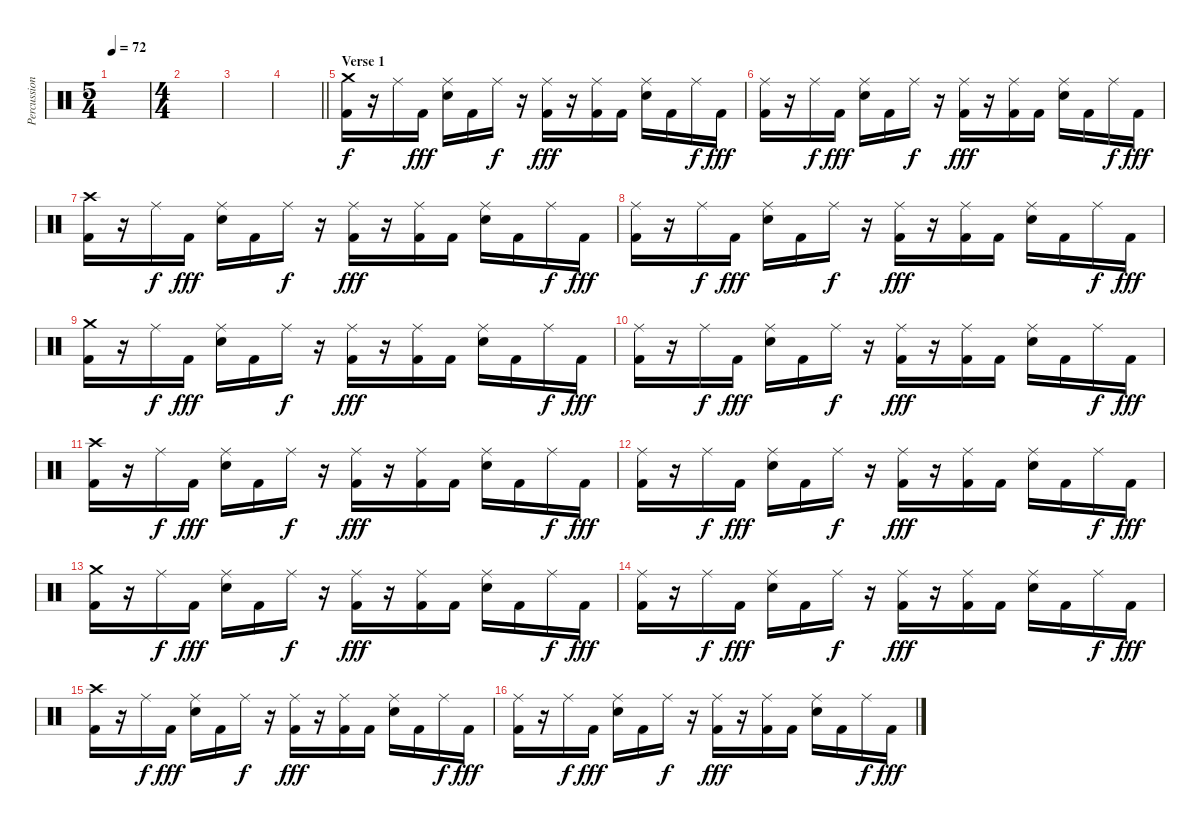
\track ("Percussion" "Percussion") {instrument percussion}
\staff {score}
\articulation defaults
\ts (5 4)
\tempo 72
\clef neutral
\ks c
|
\ts (4 4)
|
|
\barLineRight lightlight
|
\section ("" "Verse 1")
("Crash medium (hit)" "Kick (hit) 2").16 r.16 "Ride (middle)".16{dy f} "Kick (hit) 2".16{dy fff} ("Ride (middle)" "Electric Snare (hit)").16 "Kick (hit) 2".16 "Ride (middle)".16{dy f} r.16 ("Ride (middle)" "Kick (hit) 2").16{dy fff} r.16 ("Ride (middle)" "Kick (hit) 2").16 "Kick (hit) 2".16 ("Ride (middle)" "Electric Snare (hit)").16 "Kick (hit) 2".16 "Ride (middle)".16{dy f} "Kick (hit) 2".16{dy fff} |
("Ride (middle)" "Kick (hit) 2").16 r.16 "Ride (middle)".16{dy f} "Kick (hit) 2".16{dy fff} ("Ride (middle)" "Electric Snare (hit)").16 "Kick (hit) 2".16 "Ride (middle)".16{dy f} r.16 ("Ride (middle)" "Kick (hit) 2").16{dy fff} r.16 ("Ride (middle)" "Kick (hit) 2").16 "Kick (hit) 2".16 ("Ride (middle)" "Electric Snare (hit)").16 "Kick (hit) 2".16 "Ride (middle)".16{dy f} "Kick (hit) 2".16{dy fff} |
("Crash high (hit)" "Kick (hit) 2").16 r.16 "Ride (middle)".16{dy f} "Kick (hit) 2".16{dy fff} ("Ride (middle)" "Electric Snare (hit)").16 "Kick (hit) 2".16 "Ride (middle)".16{dy f} r.16 ("Ride (middle)" "Kick (hit) 2").16{dy fff} r.16 ("Ride (middle)" "Kick (hit) 2").16 "Kick (hit) 2".16 ("Ride (middle)" "Electric Snare (hit)").16 "Kick (hit) 2".16 "Ride (middle)".16{dy f} "Kick (hit) 2".16{dy fff} |
("Ride (middle)" "Kick (hit) 2").16 r.16 "Ride (middle)".16{dy f} "Kick (hit) 2".16{dy fff} ("Ride (middle)" "Electric Snare (hit)").16 "Kick (hit) 2".16 "Ride (middle)".16{dy f} r.16 ("Ride (middle)" "Kick (hit) 2").16{dy fff} r.16 ("Ride (middle)" "Kick (hit) 2").16 "Kick (hit) 2".16 ("Ride (middle)" "Electric Snare (hit)").16 "Kick (hit) 2".16 "Ride (middle)".16{dy f} "Kick (hit) 2".16{dy fff} |
("Crash medium (hit)" "Kick (hit) 2").16 r.16 "Ride (middle)".16{dy f} "Kick (hit) 2".16{dy fff} ("Ride (middle)" "Electric Snare (hit)").16 "Kick (hit) 2".16 "Ride (middle)".16{dy f} r.16 ("Ride (middle)" "Kick (hit) 2").16{dy fff} r.16 ("Ride (middle)" "Kick (hit) 2").16 "Kick (hit) 2".16 ("Ride (middle)" "Electric Snare (hit)").16 "Kick (hit) 2".16 "Ride (middle)".16{dy f} "Kick (hit) 2".16{dy fff} |
("Ride (middle)" "Kick (hit) 2").16 r.16 "Ride (middle)".16{dy f} "Kick (hit) 2".16{dy fff} ("Ride (middle)" "Electric Snare (hit)").16 "Kick (hit) 2".16 "Ride (middle)".16{dy f} r.16 ("Ride (middle)" "Kick (hit) 2").16{dy fff} r.16 ("Ride (middle)" "Kick (hit) 2").16 "Kick (hit) 2".16 ("Ride (middle)" "Electric Snare (hit)").16 "Kick (hit) 2".16 "Ride (middle)".16{dy f} "Kick (hit) 2".16{dy fff} |
("Crash high (hit)" "Kick (hit) 2").16 r.16 "Ride (middle)".16{dy f} "Kick (hit) 2".16{dy fff} ("Ride (middle)" "Electric Snare (hit)").16 "Kick (hit) 2".16 "Ride (middle)".16{dy f} r.16 ("Ride (middle)" "Kick (hit) 2").16{dy fff} r.16 ("Ride (middle)" "Kick (hit) 2").16 "Kick (hit) 2".16 ("Ride (middle)" "Electric Snare (hit)").16 "Kick (hit) 2".16 "Ride (middle)".16{dy f} "Kick (hit) 2".16{dy fff} |
("Ride (middle)" "Kick (hit) 2").16 r.16 "Ride (middle)".16{dy f} "Kick (hit) 2".16{dy fff} ("Ride (middle)" "Electric Snare (hit)").16 "Kick (hit) 2".16 "Ride (middle)".16{dy f} r.16 ("Ride (middle)" "Kick (hit) 2").16{dy fff} r.16 ("Ride (middle)" "Kick (hit) 2").16 "Kick (hit) 2".16 ("Ride (middle)" "Electric Snare (hit)").16 "Kick (hit) 2".16 "Ride (middle)".16{dy f} "Kick (hit) 2".16{dy fff} |
("Crash medium (hit)" "Kick (hit) 2").16 r.16 "Ride (middle)".16{dy f} "Kick (hit) 2".16{dy fff} ("Ride (middle)" "Electric Snare (hit)").16 "Kick (hit) 2".16 "Ride (middle)".16{dy f} r.16 ("Ride (middle)" "Kick (hit) 2").16{dy fff} r.16 ("Ride (middle)" "Kick (hit) 2").16 "Kick (hit) 2".16 ("Ride (middle)" "Electric Snare (hit)").16 "Kick (hit) 2".16 "Ride (middle)".16{dy f} "Kick (hit) 2".16{dy fff} |
("Ride (middle)" "Kick (hit) 2").16 r.16 "Ride (middle)".16{dy f} "Kick (hit) 2".16{dy fff} ("Ride (middle)" "Electric Snare (hit)").16 "Kick (hit) 2".16 "Ride (middle)".16{dy f} r.16 ("Ride (middle)" "Kick (hit) 2").16{dy fff} r.16 ("Ride (middle)" "Kick (hit) 2").16 "Kick (hit) 2".16 ("Ride (middle)" "Electric Snare (hit)").16 "Kick (hit) 2".16 "Ride (middle)".16{dy f} "Kick (hit) 2".16{dy fff} |
("Crash high (hit)" "Kick (hit) 2").16 r.16 "Ride (middle)".16{dy f} "Kick (hit) 2".16{dy fff} ("Ride (middle)" "Electric Snare (hit)").16 "Kick (hit) 2".16 "Ride (middle)".16{dy f} r.16 ("Ride (middle)" "Kick (hit) 2").16{dy fff} r.16 ("Ride (middle)" "Kick (hit) 2").16 "Kick (hit) 2".16 ("Ride (middle)" "Electric Snare (hit)").16 "Kick (hit) 2".16 "Ride (middle)".16{dy f} "Kick (hit) 2".16{dy fff} |
("Ride (middle)" "Kick (hit) 2").16 r.16 "Ride (middle)".16{dy f} "Kick (hit) 2".16{dy fff} ("Ride (middle)" "Electric Snare (hit)").16 "Kick (hit) 2".16 "Ride (middle)".16{dy f} r.16 ("Ride (middle)" "Kick (hit) 2").16{dy fff} r.16 ("Ride (middle)" "Kick (hit) 2").16 "Kick (hit) 2".16 ("Ride (middle)" "Electric Snare (hit)").16 "Kick (hit) 2".16 "Ride (middle)".16{dy f} "Kick (hit) 2".16{dy fff}
